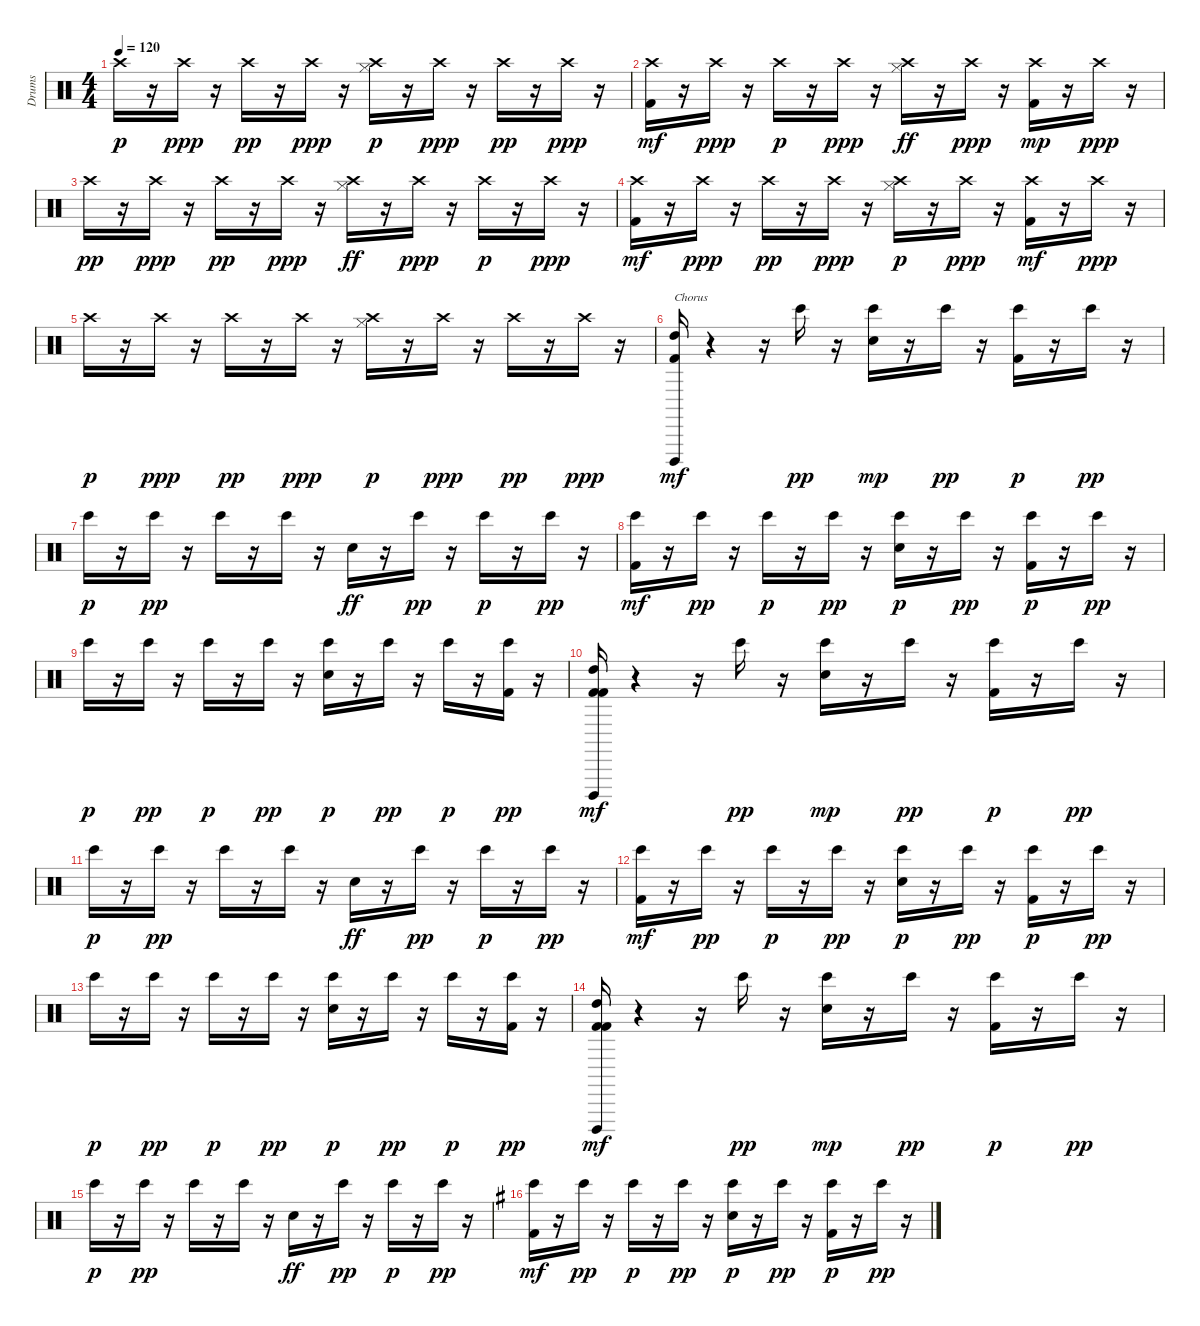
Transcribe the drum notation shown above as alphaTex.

\track ("Drums" "Drums") {instrument percussion}
\staff {score}
\articulation defaults
\ts (4 4)
\tempo 120
\clef neutral
\ks c "Crash high (hit)".16{dy p}
r.16 "Crash high (hit)".16{dy ppp} r.16 "Crash high (hit)".16{dy pp} r.16 "Crash high (hit)".16{dy ppp} r.16 ("Hi-Hat (closed)" "Crash high (hit)").16{dy p} r.16 "Crash high (hit)".16{dy ppp} r.16 "Crash high (hit)".16{dy pp} r.16 "Crash high (hit)".16{dy ppp} r.16 |
("Crash high (hit)" "Kick (hit) 2").16{dy mf} r.16 "Crash high (hit)".16{dy ppp} r.16 "Crash high (hit)".16{dy p} r.16 "Crash high (hit)".16{dy ppp} r.16 ("Crash high (hit)" "Hi-Hat (closed)").16{dy ff} r.16 "Crash high (hit)".16{dy ppp} r.16 ("Crash high (hit)" "Kick (hit) 2").16{dy mp} r.16 "Crash high (hit)".16{dy ppp} r.16 |
"Crash high (hit)".16{dy pp} r.16 "Crash high (hit)".16{dy ppp} r.16 "Crash high (hit)".16{dy pp} r.16 "Crash high (hit)".16{dy ppp} r.16 ("Crash high (hit)" "Hi-Hat (closed)").16{dy ff} r.16 "Crash high (hit)".16{dy ppp} r.16 "Crash high (hit)".16{dy p} r.16 "Crash high (hit)".16{dy ppp} r.16 |
("Crash high (hit)" "Kick (hit) 2").16{dy mf} r.16 "Crash high (hit)".16{dy ppp} r.16 "Crash high (hit)".16{dy pp} r.16 "Crash high (hit)".16{dy ppp} r.16 ("Hi-Hat (closed)" "Crash high (hit)").16{dy p} r.16 "Crash high (hit)".16{dy ppp} r.16 ("Crash high (hit)" "Kick (hit) 2").16{dy mf} r.16 "Crash high (hit)".16{dy ppp} r.16 |
"Crash high (hit)".16{dy p} r.16 "Crash high (hit)".16{dy ppp} r.16 "Crash high (hit)".16{dy pp} r.16 "Crash high (hit)".16{dy ppp} r.16 ("Hi-Hat (closed)" "Crash high (hit)").16{dy p} r.16 "Crash high (hit)".16{dy ppp} r.16 "Crash high (hit)".16{dy pp} r.16 "Crash high (hit)".16{dy ppp} r.16 |
("Kick (hit) 2" "High Tom (hit)" "Cuica (open)").16{txt "Chorus" dy mf} r.4 r.16 "Bongo High (hit)".16{dy pp} r.16 ("Snare (hit) 2" "Bongo High (hit)").16{dy mp} r.16 "Bongo High (hit)".16{dy pp} r.16 ("Kick (hit) 2" "Bongo High (hit)").16{dy p} r.16 "Bongo High (hit)".16{dy pp} r.16 |
"Bongo High (hit)".16{dy p} r.16 "Bongo High (hit)".16{dy pp} r.16 "Bongo High (hit)".16 r.16 "Bongo High (hit)".16 r.16 "Snare (hit) 2".16{dy ff} r.16 "Bongo High (hit)".16{dy pp} r.16 "Bongo High (hit)".16{dy p} r.16 "Bongo High (hit)".16{dy pp} r.16 |
("Bongo High (hit)" "Kick (hit) 2").16{dy mf} r.16 "Bongo High (hit)".16{dy pp} r.16 "Bongo High (hit)".16{dy p} r.16 "Bongo High (hit)".16{dy pp} r.16 ("Snare (hit) 2" "Bongo High (hit)").16{dy p} r.16 "Bongo High (hit)".16{dy pp} r.16 ("Kick (hit) 2" "Bongo High (hit)").16{dy p} r.16 "Bongo High (hit)".16{dy pp} r.16 |
"Bongo High (hit)".16{dy p} r.16 "Bongo High (hit)".16{dy pp} r.16 "Bongo High (hit)".16{dy p} r.16 "Bongo High (hit)".16{dy pp} r.16 ("Snare (hit) 2" "Bongo High (hit)").16{dy p} r.16 "Bongo High (hit)".16{dy pp} r.16 "Bongo High (hit)".16{dy p} r.16 ("Bongo High (hit)" "Kick (hit) 2").16{dy pp} r.16 |
("Kick (hit) 2" "Kick (hit) 2" "High Tom (hit)" "Cuica (open)").16{dy mf} r.4 r.16 "Bongo High (hit)".16{dy pp} r.16 ("Snare (hit) 2" "Bongo High (hit)").16{dy mp} r.16 "Bongo High (hit)".16{dy pp} r.16 ("Kick (hit) 2" "Bongo High (hit)").16{dy p} r.16 "Bongo High (hit)".16{dy pp} r.16 |
"Bongo High (hit)".16{dy p} r.16 "Bongo High (hit)".16{dy pp} r.16 "Bongo High (hit)".16 r.16 "Bongo High (hit)".16 r.16 "Snare (hit) 2".16{dy ff} r.16 "Bongo High (hit)".16{dy pp} r.16 "Bongo High (hit)".16{dy p} r.16 "Bongo High (hit)".16{dy pp} r.16 |
("Bongo High (hit)" "Kick (hit) 2").16{dy mf} r.16 "Bongo High (hit)".16{dy pp} r.16 "Bongo High (hit)".16{dy p} r.16 "Bongo High (hit)".16{dy pp} r.16 ("Snare (hit) 2" "Bongo High (hit)").16{dy p} r.16 "Bongo High (hit)".16{dy pp} r.16 ("Kick (hit) 2" "Bongo High (hit)").16{dy p} r.16 "Bongo High (hit)".16{dy pp} r.16 |
"Bongo High (hit)".16{dy p} r.16 "Bongo High (hit)".16{dy pp} r.16 "Bongo High (hit)".16{dy p} r.16 "Bongo High (hit)".16{dy pp} r.16 ("Snare (hit) 2" "Bongo High (hit)").16{dy p} r.16 "Bongo High (hit)".16{dy pp} r.16 "Bongo High (hit)".16{dy p} r.16 ("Bongo High (hit)" "Kick (hit) 2").16{dy pp} r.16 |
("Kick (hit) 2" "Kick (hit) 2" "High Tom (hit)" "Cuica (open)").16{dy mf} r.4 r.16 "Bongo High (hit)".16{dy pp} r.16 ("Snare (hit) 2" "Bongo High (hit)").16{dy mp} r.16 "Bongo High (hit)".16{dy pp} r.16 ("Kick (hit) 2" "Bongo High (hit)").16{dy p} r.16 "Bongo High (hit)".16{dy pp} r.16 |
"Bongo High (hit)".16{dy p} r.16 "Bongo High (hit)".16{dy pp} r.16 "Bongo High (hit)".16 r.16 "Bongo High (hit)".16 r.16 "Snare (hit) 2".16{dy ff} r.16 "Bongo High (hit)".16{dy pp} r.16 "Bongo High (hit)".16{dy p} r.16 "Bongo High (hit)".16{dy pp} r.16 |
\ks g
("Bongo High (hit)" "Kick (hit) 2").16{dy mf} r.16 "Bongo High (hit)".16{dy pp} r.16 "Bongo High (hit)".16{dy p} r.16 "Bongo High (hit)".16{dy pp} r.16 ("Snare (hit) 2" "Bongo High (hit)").16{dy p} r.16 "Bongo High (hit)".16{dy pp} r.16 ("Kick (hit) 2" "Bongo High (hit)").16{dy p} r.16 "Bongo High (hit)".16{dy pp} r.16
